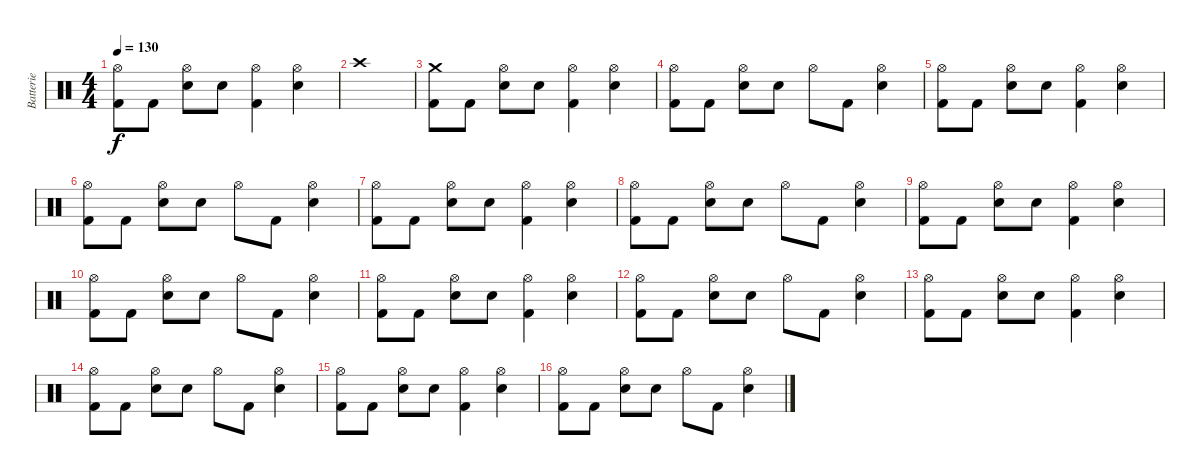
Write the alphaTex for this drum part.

\track ("Batterie" "Batterie") {instrument percussion}
\staff {score}
\articulation defaults
\ts (4 4)
\tempo 130
\clef neutral
\ks c
("Hi-Hat (open)" "Kick (hit) 2").8{dy f} "Kick (hit) 2".8 ("Hi-Hat (open)" "Snare (hit) 2").8 "Snare (hit) 2".8 ("Hi-Hat (open)" "Kick (hit) 2").4 ("Hi-Hat (open)" "Snare (hit) 2").4 |
"Crash high (hit)".1 |
("Crash medium (hit)" "Kick (hit) 2").8 "Kick (hit) 2".8 ("Hi-Hat (open)" "Snare (hit) 2").8 "Snare (hit) 2".8 ("Hi-Hat (open)" "Kick (hit) 2").4 ("Hi-Hat (open)" "Snare (hit) 2").4 |
("Hi-Hat (open)" "Kick (hit) 2").8 "Kick (hit) 2".8 ("Hi-Hat (open)" "Snare (hit) 2").8 "Snare (hit) 2".8 "Hi-Hat (open)".8 "Kick (hit) 2".8 ("Hi-Hat (open)" "Snare (hit) 2").4 |
("Hi-Hat (open)" "Kick (hit) 2").8 "Kick (hit) 2".8 ("Hi-Hat (open)" "Snare (hit) 2").8 "Snare (hit) 2".8 ("Hi-Hat (open)" "Kick (hit) 2").4 ("Hi-Hat (open)" "Snare (hit) 2").4 |
("Hi-Hat (open)" "Kick (hit) 2").8 "Kick (hit) 2".8 ("Hi-Hat (open)" "Snare (hit) 2").8 "Snare (hit) 2".8 "Hi-Hat (open)".8 "Kick (hit) 2".8 ("Hi-Hat (open)" "Snare (hit) 2").4 |
("Hi-Hat (open)" "Kick (hit) 2").8 "Kick (hit) 2".8 ("Hi-Hat (open)" "Snare (hit) 2").8 "Snare (hit) 2".8 ("Hi-Hat (open)" "Kick (hit) 2").4 ("Hi-Hat (open)" "Snare (hit) 2").4 |
("Hi-Hat (open)" "Kick (hit) 2").8 "Kick (hit) 2".8 ("Hi-Hat (open)" "Snare (hit) 2").8 "Snare (hit) 2".8 "Hi-Hat (open)".8 "Kick (hit) 2".8 ("Hi-Hat (open)" "Snare (hit) 2").4 |
("Hi-Hat (open)" "Kick (hit) 2").8 "Kick (hit) 2".8 ("Hi-Hat (open)" "Snare (hit) 2").8 "Snare (hit) 2".8 ("Hi-Hat (open)" "Kick (hit) 2").4 ("Hi-Hat (open)" "Snare (hit) 2").4 |
("Hi-Hat (open)" "Kick (hit) 2").8 "Kick (hit) 2".8 ("Hi-Hat (open)" "Snare (hit) 2").8 "Snare (hit) 2".8 "Hi-Hat (open)".8 "Kick (hit) 2".8 ("Hi-Hat (open)" "Snare (hit) 2").4 |
("Hi-Hat (open)" "Kick (hit) 2").8 "Kick (hit) 2".8 ("Hi-Hat (open)" "Snare (hit) 2").8 "Snare (hit) 2".8 ("Hi-Hat (open)" "Kick (hit) 2").4 ("Hi-Hat (open)" "Snare (hit) 2").4 |
("Hi-Hat (open)" "Kick (hit) 2").8 "Kick (hit) 2".8 ("Hi-Hat (open)" "Snare (hit) 2").8 "Snare (hit) 2".8 "Hi-Hat (open)".8 "Kick (hit) 2".8 ("Hi-Hat (open)" "Snare (hit) 2").4 |
("Hi-Hat (open)" "Kick (hit) 2").8 "Kick (hit) 2".8 ("Hi-Hat (open)" "Snare (hit) 2").8 "Snare (hit) 2".8 ("Hi-Hat (open)" "Kick (hit) 2").4 ("Hi-Hat (open)" "Snare (hit) 2").4 |
("Hi-Hat (open)" "Kick (hit) 2").8 "Kick (hit) 2".8 ("Hi-Hat (open)" "Snare (hit) 2").8 "Snare (hit) 2".8 "Hi-Hat (open)".8 "Kick (hit) 2".8 ("Hi-Hat (open)" "Snare (hit) 2").4 |
("Hi-Hat (open)" "Kick (hit) 2").8 "Kick (hit) 2".8 ("Hi-Hat (open)" "Snare (hit) 2").8 "Snare (hit) 2".8 ("Hi-Hat (open)" "Kick (hit) 2").4 ("Hi-Hat (open)" "Snare (hit) 2").4 |
("Hi-Hat (open)" "Kick (hit) 2").8 "Kick (hit) 2".8 ("Hi-Hat (open)" "Snare (hit) 2").8 "Snare (hit) 2".8 "Hi-Hat (open)".8 "Kick (hit) 2".8 ("Hi-Hat (open)" "Snare (hit) 2").4
